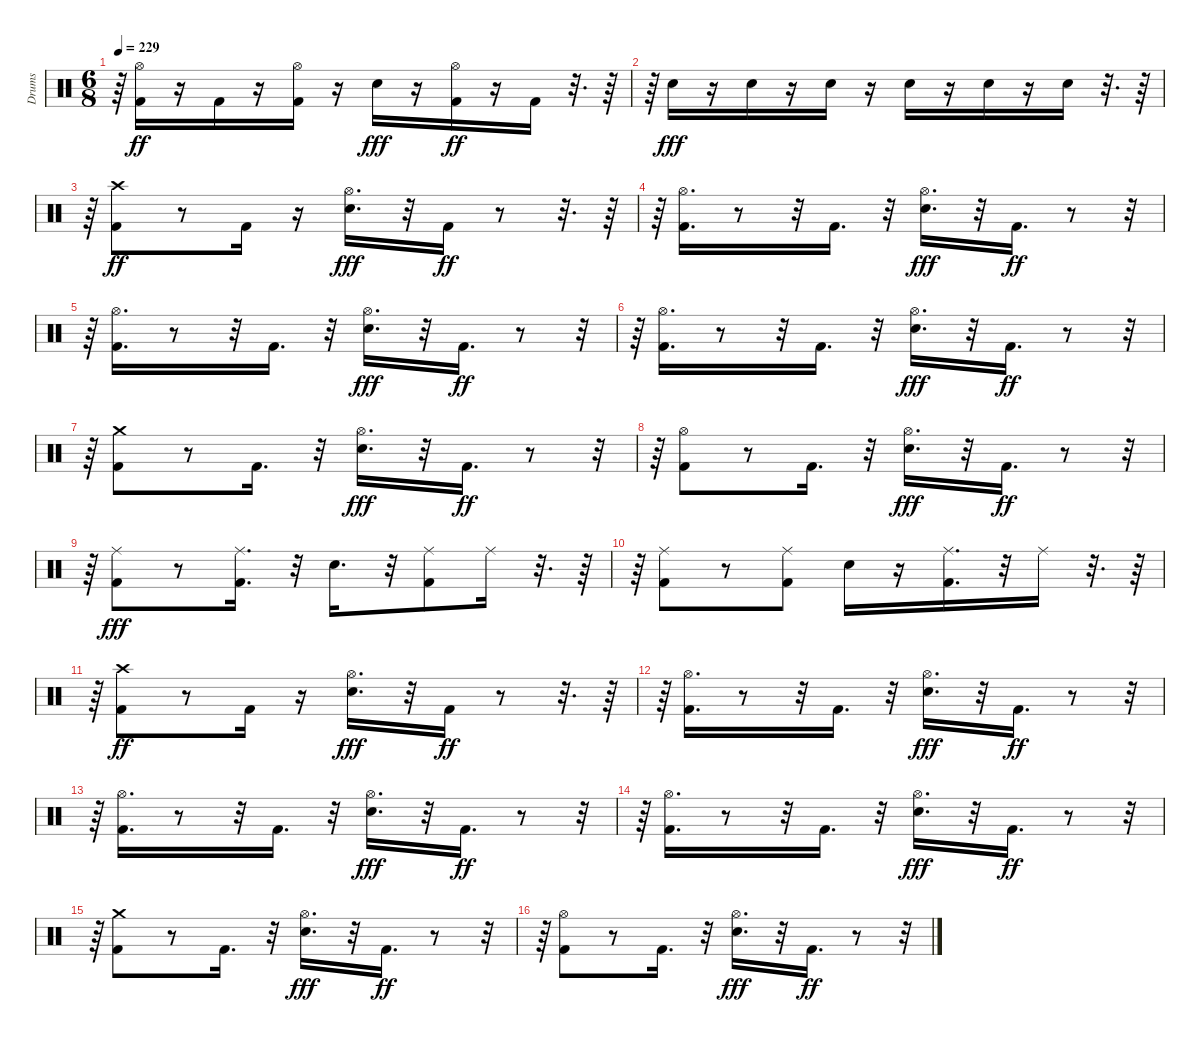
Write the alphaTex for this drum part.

\track ("Drums" "Drums") {instrument percussion}
\staff {score}
\articulation defaults
\ts (6 8)
\tempo 229
\clef neutral
\ks c
r.64{dy f} ("Kick (hit) 2" "Hi-Hat (open)").16{dy ff} r.16 "Kick (hit) 2".16 r.16 ("Kick (hit) 2" "Hi-Hat (open)").16 r.16 "Snare (hit) 2".16{dy fff} r.16 ("Kick (hit) 2" "Hi-Hat (open)").16{dy ff} r.16 "Kick (hit) 2".16 r.32{d} r.64 |
r.64 "Snare (hit) 2".16{dy fff} r.16 "Snare (hit) 2".16 r.16 "Snare (hit) 2".16 r.16 "Snare (hit) 2".16 r.16 "Snare (hit) 2".16 r.16 "Snare (hit) 2".16 r.32{d} r.64 |
r.64 ("Kick (hit) 2" "Crash high (hit)").8{dy ff} r.8 "Kick (hit) 2".16 r.16 ("Snare (hit) 2" "Hi-Hat (open)").16{d dy fff} r.32 "Kick (hit) 2".16{dy ff} r.8 r.32{d} r.64 |
r.64 ("Kick (hit) 2" "Hi-Hat (open)").16{d} r.8 r.32 "Kick (hit) 2".16{d} r.32 ("Snare (hit) 2" "Hi-Hat (open)").16{d dy fff} r.32 "Kick (hit) 2".16{d dy ff} r.8 r.32{tu (5 4)} |
r.64 ("Kick (hit) 2" "Hi-Hat (open)").16{d} r.8 r.32 "Kick (hit) 2".16{d} r.32 ("Snare (hit) 2" "Hi-Hat (open)").16{d dy fff} r.32 "Kick (hit) 2".16{d dy ff} r.8 r.32{tu (5 4)} |
r.64 ("Kick (hit) 2" "Hi-Hat (open)").16{d} r.8 r.32 "Kick (hit) 2".16{d} r.32 ("Snare (hit) 2" "Hi-Hat (open)").16{d dy fff} r.32 "Kick (hit) 2".16{d dy ff} r.8 r.32{tu (5 4)} |
r.64 ("Kick (hit) 2" "Crash medium (hit)").8 r.8 "Kick (hit) 2".16{d} r.32 ("Snare (hit) 2" "Hi-Hat (open)").16{d dy fff} r.32 "Kick (hit) 2".16{d dy ff} r.8 r.32{tu (5 4)} |
r.64 ("Kick (hit) 2" "Hi-Hat (open)").8 r.8 "Kick (hit) 2".16{d} r.32 ("Snare (hit) 2" "Hi-Hat (open)").16{d dy fff} r.32 "Kick (hit) 2".16{d dy ff} r.8 r.32{tu (5 4)} |
r.64 ("Kick (hit) 2" "Ride (middle)").8{dy fff} r.8 ("Kick (hit) 2" "Ride (middle)").16{d} r.32 "Snare (hit) 2".16{d} r.32 ("Kick (hit) 2" "Ride (middle)").8 "Ride (middle)".16 r.32{d} r.64 |
r.64 ("Kick (hit) 2" "Ride (middle)").8 r.8 ("Kick (hit) 2" "Ride (middle)").8 "Snare (hit) 2".16 r.16 ("Kick (hit) 2" "Ride (middle)").16{d} r.32 "Ride (middle)".16 r.32{d} r.64 |
r.64 ("Kick (hit) 2" "Crash high (hit)").8{dy ff} r.8 "Kick (hit) 2".16 r.16 ("Snare (hit) 2" "Hi-Hat (open)").16{d dy fff} r.32 "Kick (hit) 2".16{dy ff} r.8 r.32{d} r.64 |
r.64 ("Kick (hit) 2" "Hi-Hat (open)").16{d} r.8 r.32 "Kick (hit) 2".16{d} r.32 ("Snare (hit) 2" "Hi-Hat (open)").16{d dy fff} r.32 "Kick (hit) 2".16{d dy ff} r.8 r.32{tu (5 4)} |
r.64 ("Kick (hit) 2" "Hi-Hat (open)").16{d} r.8 r.32 "Kick (hit) 2".16{d} r.32 ("Snare (hit) 2" "Hi-Hat (open)").16{d dy fff} r.32 "Kick (hit) 2".16{d dy ff} r.8 r.32{tu (5 4)} |
r.64 ("Kick (hit) 2" "Hi-Hat (open)").16{d} r.8 r.32 "Kick (hit) 2".16{d} r.32 ("Snare (hit) 2" "Hi-Hat (open)").16{d dy fff} r.32 "Kick (hit) 2".16{d dy ff} r.8 r.32{tu (5 4)} |
r.64 ("Kick (hit) 2" "Crash medium (hit)").8 r.8 "Kick (hit) 2".16{d} r.32 ("Snare (hit) 2" "Hi-Hat (open)").16{d dy fff} r.32 "Kick (hit) 2".16{d dy ff} r.8 r.32{tu (5 4)} |
r.64 ("Kick (hit) 2" "Hi-Hat (open)").8 r.8 "Kick (hit) 2".16{d} r.32 ("Snare (hit) 2" "Hi-Hat (open)").16{d dy fff} r.32 "Kick (hit) 2".16{d dy ff} r.8 r.32{tu (5 4)}
